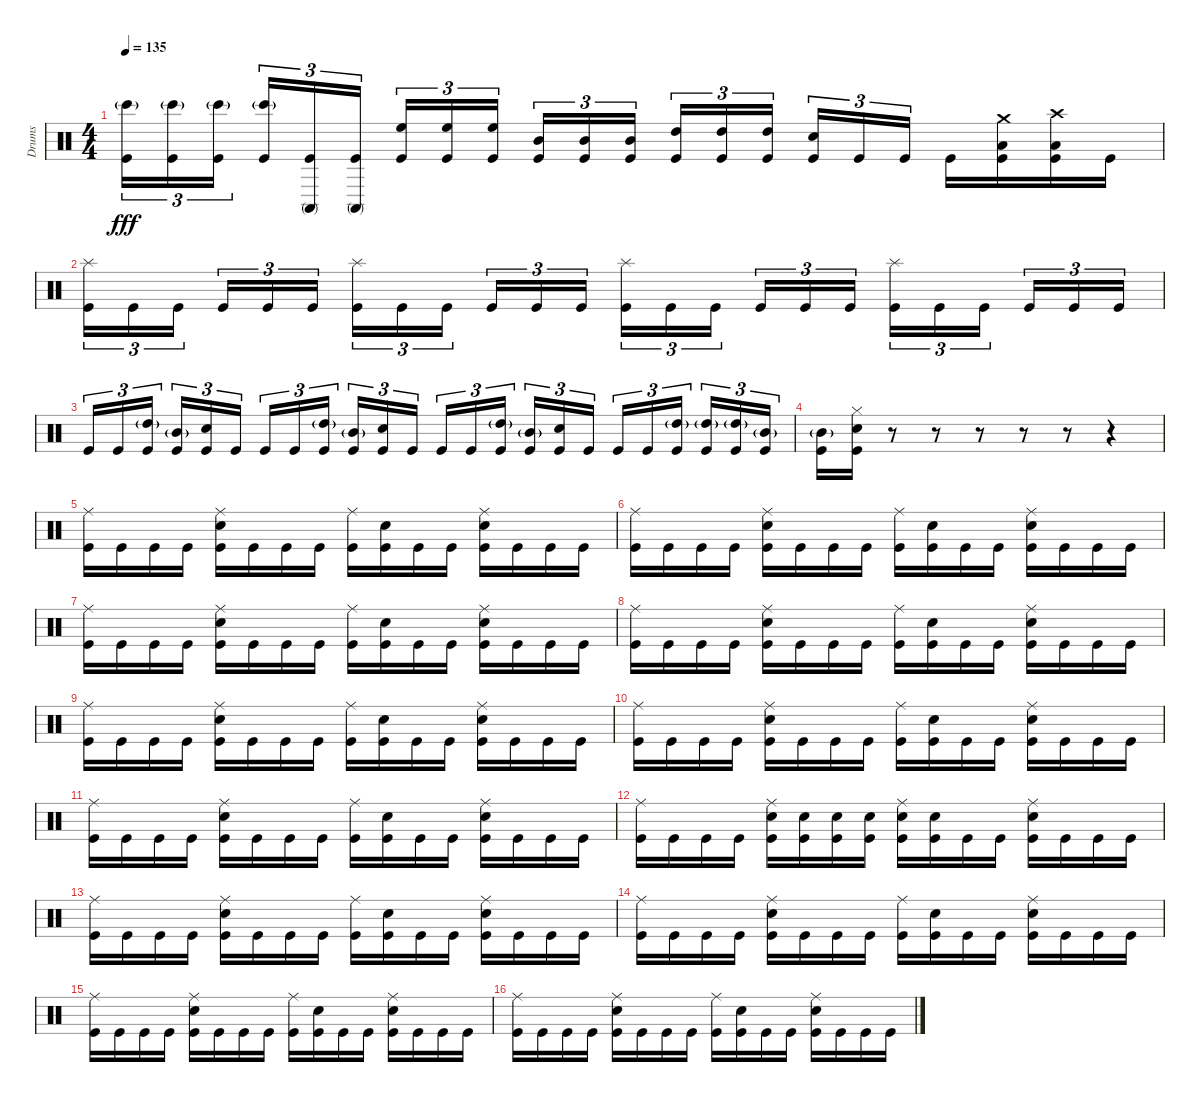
\track ("Drums" "Drums") {instrument percussion}
\staff {score}
\articulation defaults
\ts (4 4)
\tempo 135
\clef neutral
\ks c
("Bongo High (hit)"{g} "Kick (hit)").16{tu (3 2) dy fff} ("Bongo High (hit)"{g} "Kick (hit)").16{tu (3 2)} ("Bongo High (hit)"{g} "Kick (hit)").16{tu (3 2) beam splitsecondary} ("Bongo High (hit)"{g} "Kick (hit)").16{tu (3 2)} ("Conga high (mute)" "Kick (hit)").16{tu (3 2)} ("Conga high (mute)" "Kick (hit)").16{tu (3 2)} ("High Floor Tom (hit)" "Kick (hit)").16{tu (3 2)} ("High Floor Tom (hit)" "Kick (hit)").16{tu (3 2)} ("High Floor Tom (hit)" "Kick (hit)").16{tu (3 2) beam splitsecondary} ("Mid Tom (hit)" "Kick (hit)").16{tu (3 2)} ("Mid Tom (hit)" "Kick (hit)").16{tu (3 2)} ("Mid Tom (hit)" "Kick (hit)").16{tu (3 2)} ("High Tom (hit)" "Kick (hit)").16{tu (3 2)} ("High Tom (hit)" "Kick (hit)").16{tu (3 2)} ("High Tom (hit)" "Kick (hit)").16{tu (3 2) beam splitsecondary} ("Electric Snare (hit)" "Kick (hit)").16{tu (3 2)} "Kick (hit)".16{tu (3 2)} "Kick (hit)".16{tu (3 2)} "Kick (hit)".16 ("Crash medium (hit)" "Low Tom (hit)" "Kick (hit)").16 ("Crash high (hit)" "Low Tom (hit)" "Kick (hit)").16 "Kick (hit)".16 |
("Splash (hit)" "Kick (hit)").16{tu (3 2)} "Kick (hit)".16{tu (3 2)} "Kick (hit)".16{tu (3 2) beam splitsecondary} "Kick (hit)".16{tu (3 2)} "Kick (hit)".16{tu (3 2)} "Kick (hit)".16{tu (3 2)} ("Splash (hit)" "Kick (hit)").16{tu (3 2)} "Kick (hit)".16{tu (3 2)} "Kick (hit)".16{tu (3 2) beam splitsecondary} "Kick (hit)".16{tu (3 2)} "Kick (hit)".16{tu (3 2)} "Kick (hit)".16{tu (3 2)} ("Splash (hit)" "Kick (hit)").16{tu (3 2)} "Kick (hit)".16{tu (3 2)} "Kick (hit)".16{tu (3 2) beam splitsecondary} "Kick (hit)".16{tu (3 2)} "Kick (hit)".16{tu (3 2)} "Kick (hit)".16{tu (3 2)} ("Splash (hit)" "Kick (hit)").16{tu (3 2)} "Kick (hit)".16{tu (3 2)} "Kick (hit)".16{tu (3 2) beam splitsecondary} "Kick (hit)".16{tu (3 2)} "Kick (hit)".16{tu (3 2)} "Kick (hit)".16{tu (3 2)} |
"Kick (hit)".16{tu (3 2)} "Kick (hit)".16{tu (3 2)} ("High Tom (hit)"{g} "Kick (hit)").16{tu (3 2) beam splitsecondary} ("Mid Tom (hit)"{g} "Kick (hit)").16{tu (3 2)} ("Electric Snare (hit)" "Kick (hit)").16{tu (3 2)} "Kick (hit)".16{tu (3 2)} "Kick (hit)".16{tu (3 2)} "Kick (hit)".16{tu (3 2)} ("High Tom (hit)"{g} "Kick (hit)").16{tu (3 2) beam splitsecondary} ("Mid Tom (hit)"{g} "Kick (hit)").16{tu (3 2)} ("Electric Snare (hit)" "Kick (hit)").16{tu (3 2)} "Kick (hit)".16{tu (3 2)} "Kick (hit)".16{tu (3 2)} "Kick (hit)".16{tu (3 2)} ("High Tom (hit)"{g} "Kick (hit)").16{tu (3 2) beam splitsecondary} ("Mid Tom (hit)"{g} "Kick (hit)").16{tu (3 2)} ("Electric Snare (hit)" "Kick (hit)").16{tu (3 2)} "Kick (hit)".16{tu (3 2)} "Kick (hit)".16{tu (3 2)} "Kick (hit)".16{tu (3 2)} ("High Tom (hit)"{g} "Kick (hit)").16{tu (3 2) beam splitsecondary} ("High Tom (hit)"{g} "Kick (hit)").16{tu (3 2)} ("High Tom (hit)"{g} "Kick (hit)").16{tu (3 2)} ("Mid Tom (hit)"{g} "Kick (hit)").16{tu (3 2)} |
("Mid Tom (hit)"{g} "Kick (hit)").16 ("Electric Snare (hit)" "Hi-Hat (closed)" "Kick (hit)").16 r.8 r.8 r.8 r.8 r.8 r.4 |
("Ride (middle)" "Kick (hit)").16 "Kick (hit)".16 "Kick (hit)".16 "Kick (hit)".16 ("Ride (middle)" "Electric Snare (hit)" "Kick (hit)").16 "Kick (hit)".16 "Kick (hit)".16 "Kick (hit)".16 ("Ride (middle)" "Kick (hit)").16 ("Electric Snare (hit)" "Kick (hit)").16 "Kick (hit)".16 "Kick (hit)".16 ("Ride (middle)" "Electric Snare (hit)" "Kick (hit)").16 "Kick (hit)".16 "Kick (hit)".16 "Kick (hit)".16 |
("Ride (middle)" "Kick (hit)").16 "Kick (hit)".16 "Kick (hit)".16 "Kick (hit)".16 ("Ride (middle)" "Electric Snare (hit)" "Kick (hit)").16 "Kick (hit)".16 "Kick (hit)".16 "Kick (hit)".16 ("Ride (middle)" "Kick (hit)").16 ("Electric Snare (hit)" "Kick (hit)").16 "Kick (hit)".16 "Kick (hit)".16 ("Ride (middle)" "Electric Snare (hit)" "Kick (hit)").16 "Kick (hit)".16 "Kick (hit)".16 "Kick (hit)".16 |
("Ride (middle)" "Kick (hit)").16 "Kick (hit)".16 "Kick (hit)".16 "Kick (hit)".16 ("Ride (middle)" "Electric Snare (hit)" "Kick (hit)").16 "Kick (hit)".16 "Kick (hit)".16 "Kick (hit)".16 ("Ride (middle)" "Kick (hit)").16 ("Electric Snare (hit)" "Kick (hit)").16 "Kick (hit)".16 "Kick (hit)".16 ("Ride (middle)" "Electric Snare (hit)" "Kick (hit)").16 "Kick (hit)".16 "Kick (hit)".16 "Kick (hit)".16 |
("Ride (middle)" "Kick (hit)").16 "Kick (hit)".16 "Kick (hit)".16 "Kick (hit)".16 ("Ride (middle)" "Electric Snare (hit)" "Kick (hit)").16 "Kick (hit)".16 "Kick (hit)".16 "Kick (hit)".16 ("Ride (middle)" "Kick (hit)").16 ("Electric Snare (hit)" "Kick (hit)").16 "Kick (hit)".16 "Kick (hit)".16 ("Ride (middle)" "Electric Snare (hit)" "Kick (hit)").16 "Kick (hit)".16 "Kick (hit)".16 "Kick (hit)".16 |
("Ride (middle)" "Kick (hit)").16 "Kick (hit)".16 "Kick (hit)".16 "Kick (hit)".16 ("Ride (middle)" "Electric Snare (hit)" "Kick (hit)").16 "Kick (hit)".16 "Kick (hit)".16 "Kick (hit)".16 ("Ride (middle)" "Kick (hit)").16 ("Electric Snare (hit)" "Kick (hit)").16 "Kick (hit)".16 "Kick (hit)".16 ("Ride (middle)" "Electric Snare (hit)" "Kick (hit)").16 "Kick (hit)".16 "Kick (hit)".16 "Kick (hit)".16 |
("Ride (middle)" "Kick (hit)").16 "Kick (hit)".16 "Kick (hit)".16 "Kick (hit)".16 ("Ride (middle)" "Electric Snare (hit)" "Kick (hit)").16 "Kick (hit)".16 "Kick (hit)".16 "Kick (hit)".16 ("Ride (middle)" "Kick (hit)").16 ("Electric Snare (hit)" "Kick (hit)").16 "Kick (hit)".16 "Kick (hit)".16 ("Ride (middle)" "Electric Snare (hit)" "Kick (hit)").16 "Kick (hit)".16 "Kick (hit)".16 "Kick (hit)".16 |
("Ride (middle)" "Kick (hit)").16 "Kick (hit)".16 "Kick (hit)".16 "Kick (hit)".16 ("Ride (middle)" "Electric Snare (hit)" "Kick (hit)").16 "Kick (hit)".16 "Kick (hit)".16 "Kick (hit)".16 ("Ride (middle)" "Kick (hit)").16 ("Electric Snare (hit)" "Kick (hit)").16 "Kick (hit)".16 "Kick (hit)".16 ("Ride (middle)" "Electric Snare (hit)" "Kick (hit)").16 "Kick (hit)".16 "Kick (hit)".16 "Kick (hit)".16 |
("Ride (middle)" "Kick (hit)").16 "Kick (hit)".16 "Kick (hit)".16 "Kick (hit)".16 ("Ride (middle)" "Electric Snare (hit)" "Kick (hit)").16 ("Electric Snare (hit)" "Kick (hit)").16 ("Electric Snare (hit)" "Kick (hit)").16 ("Electric Snare (hit)" "Kick (hit)").16 ("Ride (middle)" "Electric Snare (hit)" "Kick (hit)").16 ("Electric Snare (hit)" "Kick (hit)").16 "Kick (hit)".16 "Kick (hit)".16 ("Ride (middle)" "Electric Snare (hit)" "Kick (hit)").16 "Kick (hit)".16 "Kick (hit)".16 "Kick (hit)".16 |
("Ride (middle)" "Kick (hit)").16 "Kick (hit)".16 "Kick (hit)".16 "Kick (hit)".16 ("Ride (middle)" "Electric Snare (hit)" "Kick (hit)").16 "Kick (hit)".16 "Kick (hit)".16 "Kick (hit)".16 ("Ride (middle)" "Kick (hit)").16 ("Electric Snare (hit)" "Kick (hit)").16 "Kick (hit)".16 "Kick (hit)".16 ("Ride (middle)" "Electric Snare (hit)" "Kick (hit)").16 "Kick (hit)".16 "Kick (hit)".16 "Kick (hit)".16 |
("Ride (middle)" "Kick (hit)").16 "Kick (hit)".16 "Kick (hit)".16 "Kick (hit)".16 ("Ride (middle)" "Electric Snare (hit)" "Kick (hit)").16 "Kick (hit)".16 "Kick (hit)".16 "Kick (hit)".16 ("Ride (middle)" "Kick (hit)").16 ("Electric Snare (hit)" "Kick (hit)").16 "Kick (hit)".16 "Kick (hit)".16 ("Ride (middle)" "Electric Snare (hit)" "Kick (hit)").16 "Kick (hit)".16 "Kick (hit)".16 "Kick (hit)".16 |
("Ride (middle)" "Kick (hit)").16 "Kick (hit)".16 "Kick (hit)".16 "Kick (hit)".16 ("Ride (middle)" "Electric Snare (hit)" "Kick (hit)").16 "Kick (hit)".16 "Kick (hit)".16 "Kick (hit)".16 ("Ride (middle)" "Kick (hit)").16 ("Electric Snare (hit)" "Kick (hit)").16 "Kick (hit)".16 "Kick (hit)".16 ("Ride (middle)" "Electric Snare (hit)" "Kick (hit)").16 "Kick (hit)".16 "Kick (hit)".16 "Kick (hit)".16 |
("Ride (middle)" "Kick (hit)").16 "Kick (hit)".16 "Kick (hit)".16 "Kick (hit)".16 ("Ride (middle)" "Electric Snare (hit)" "Kick (hit)").16 "Kick (hit)".16 "Kick (hit)".16 "Kick (hit)".16 ("Ride (middle)" "Kick (hit)").16 ("Electric Snare (hit)" "Kick (hit)").16 "Kick (hit)".16 "Kick (hit)".16 ("Ride (middle)" "Electric Snare (hit)" "Kick (hit)").16 "Kick (hit)".16 "Kick (hit)".16 "Kick (hit)".16
